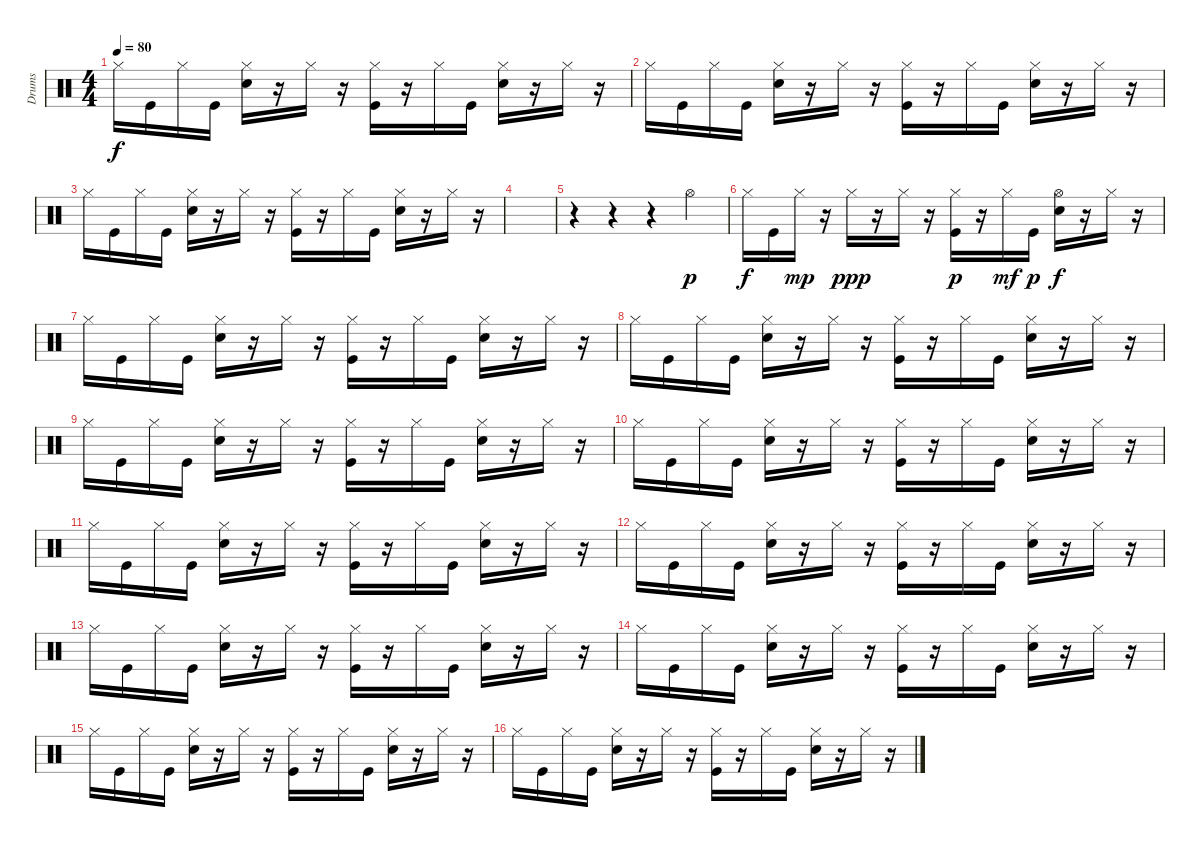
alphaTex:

\track ("Drums" "Drums") {instrument percussion}
\staff {score}
\articulation defaults
\ts (4 4)
\tempo 80
\clef neutral
\ks c "Hi-Hat (closed)".16{dy f} "Kick (hit)".16 "Hi-Hat (closed)".16 "Kick (hit)".16
("Hi-Hat (closed)" "Electric Snare (hit)").16 r.16 "Hi-Hat (closed)".16 r.16 ("Hi-Hat (closed)" "Kick (hit)").16 r.16 "Hi-Hat (closed)".16 "Kick (hit)".16 ("Hi-Hat (closed)" "Electric Snare (hit)").16 r.16 "Hi-Hat (closed)".16 r.16 |
"Hi-Hat (closed)".16 "Kick (hit)".16 "Hi-Hat (closed)".16 "Kick (hit)".16 ("Hi-Hat (closed)" "Electric Snare (hit)").16 r.16 "Hi-Hat (closed)".16 r.16 ("Hi-Hat (closed)" "Kick (hit)").16 r.16 "Hi-Hat (closed)".16 "Kick (hit)".16 ("Hi-Hat (closed)" "Electric Snare (hit)").16 r.16 "Hi-Hat (closed)".16 r.16 |
"Hi-Hat (closed)".16 "Kick (hit)".16 "Hi-Hat (closed)".16 "Kick (hit)".16 ("Hi-Hat (closed)" "Electric Snare (hit)").16 r.16 "Hi-Hat (closed)".16 r.16 ("Hi-Hat (closed)" "Kick (hit)").16 r.16 "Hi-Hat (closed)".16 "Kick (hit)".16 ("Hi-Hat (closed)" "Electric Snare (hit)").16 r.16 "Hi-Hat (closed)".16 r.16 |
|
r.4 r.4 r.4 "Hi-Hat (open)".4{dy p} |
"Hi-Hat (closed)".16{dy f} "Kick (hit)".16 "Hi-Hat (closed)".16{dy mp} r.16 "Hi-Hat (closed)".16{dy ppp} r.16 "Hi-Hat (closed)".16 r.16 ("Hi-Hat (closed)" "Kick (hit)").16{dy p} r.16 "Hi-Hat (closed)".16{dy mf} "Kick (hit)".16{dy p} ("Hi-Hat (open)" "Electric Snare (hit)").16{dy f} r.16 "Hi-Hat (closed)".16 r.16 |
"Hi-Hat (closed)".16 "Kick (hit)".16 "Hi-Hat (closed)".16 "Kick (hit)".16 ("Hi-Hat (closed)" "Electric Snare (hit)").16 r.16 "Hi-Hat (closed)".16 r.16 ("Hi-Hat (closed)" "Kick (hit)").16 r.16 "Hi-Hat (closed)".16 "Kick (hit)".16 ("Hi-Hat (closed)" "Electric Snare (hit)").16 r.16 "Hi-Hat (closed)".16 r.16 |
"Hi-Hat (closed)".16 "Kick (hit)".16 "Hi-Hat (closed)".16 "Kick (hit)".16 ("Hi-Hat (closed)" "Electric Snare (hit)").16 r.16 "Hi-Hat (closed)".16 r.16 ("Hi-Hat (closed)" "Kick (hit)").16 r.16 "Hi-Hat (closed)".16 "Kick (hit)".16 ("Hi-Hat (closed)" "Electric Snare (hit)").16 r.16 "Hi-Hat (closed)".16 r.16 |
"Hi-Hat (closed)".16 "Kick (hit)".16 "Hi-Hat (closed)".16 "Kick (hit)".16 ("Hi-Hat (closed)" "Electric Snare (hit)").16 r.16 "Hi-Hat (closed)".16 r.16 ("Hi-Hat (closed)" "Kick (hit)").16 r.16 "Hi-Hat (closed)".16 "Kick (hit)".16 ("Hi-Hat (closed)" "Electric Snare (hit)").16 r.16 "Hi-Hat (closed)".16 r.16 |
"Hi-Hat (closed)".16 "Kick (hit)".16 "Hi-Hat (closed)".16 "Kick (hit)".16 ("Hi-Hat (closed)" "Electric Snare (hit)").16 r.16 "Hi-Hat (closed)".16 r.16 ("Hi-Hat (closed)" "Kick (hit)").16 r.16 "Hi-Hat (closed)".16 "Kick (hit)".16 ("Hi-Hat (closed)" "Electric Snare (hit)").16 r.16 "Hi-Hat (closed)".16 r.16 |
"Hi-Hat (closed)".16 "Kick (hit)".16 "Hi-Hat (closed)".16 "Kick (hit)".16 ("Hi-Hat (closed)" "Electric Snare (hit)").16 r.16 "Hi-Hat (closed)".16 r.16 ("Hi-Hat (closed)" "Kick (hit)").16 r.16 "Hi-Hat (closed)".16 "Kick (hit)".16 ("Hi-Hat (closed)" "Electric Snare (hit)").16 r.16 "Hi-Hat (closed)".16 r.16 |
"Hi-Hat (closed)".16 "Kick (hit)".16 "Hi-Hat (closed)".16 "Kick (hit)".16 ("Hi-Hat (closed)" "Electric Snare (hit)").16 r.16 "Hi-Hat (closed)".16 r.16 ("Hi-Hat (closed)" "Kick (hit)").16 r.16 "Hi-Hat (closed)".16 "Kick (hit)".16 ("Hi-Hat (closed)" "Electric Snare (hit)").16 r.16 "Hi-Hat (closed)".16 r.16 |
"Hi-Hat (closed)".16 "Kick (hit)".16 "Hi-Hat (closed)".16 "Kick (hit)".16 ("Hi-Hat (closed)" "Electric Snare (hit)").16 r.16 "Hi-Hat (closed)".16 r.16 ("Hi-Hat (closed)" "Kick (hit)").16 r.16 "Hi-Hat (closed)".16 "Kick (hit)".16 ("Hi-Hat (closed)" "Electric Snare (hit)").16 r.16 "Hi-Hat (closed)".16 r.16 |
"Hi-Hat (closed)".16 "Kick (hit)".16 "Hi-Hat (closed)".16 "Kick (hit)".16 ("Hi-Hat (closed)" "Electric Snare (hit)").16 r.16 "Hi-Hat (closed)".16 r.16 ("Hi-Hat (closed)" "Kick (hit)").16 r.16 "Hi-Hat (closed)".16 "Kick (hit)".16 ("Hi-Hat (closed)" "Electric Snare (hit)").16 r.16 "Hi-Hat (closed)".16 r.16 |
"Hi-Hat (closed)".16 "Kick (hit)".16 "Hi-Hat (closed)".16 "Kick (hit)".16 ("Hi-Hat (closed)" "Electric Snare (hit)").16 r.16 "Hi-Hat (closed)".16 r.16 ("Hi-Hat (closed)" "Kick (hit)").16 r.16 "Hi-Hat (closed)".16 "Kick (hit)".16 ("Hi-Hat (closed)" "Electric Snare (hit)").16 r.16 "Hi-Hat (closed)".16 r.16 |
"Hi-Hat (closed)".16 "Kick (hit)".16 "Hi-Hat (closed)".16 "Kick (hit)".16 ("Hi-Hat (closed)" "Electric Snare (hit)").16 r.16 "Hi-Hat (closed)".16 r.16 ("Hi-Hat (closed)" "Kick (hit)").16 r.16 "Hi-Hat (closed)".16 "Kick (hit)".16 ("Hi-Hat (closed)" "Electric Snare (hit)").16 r.16 "Hi-Hat (closed)".16 r.16
